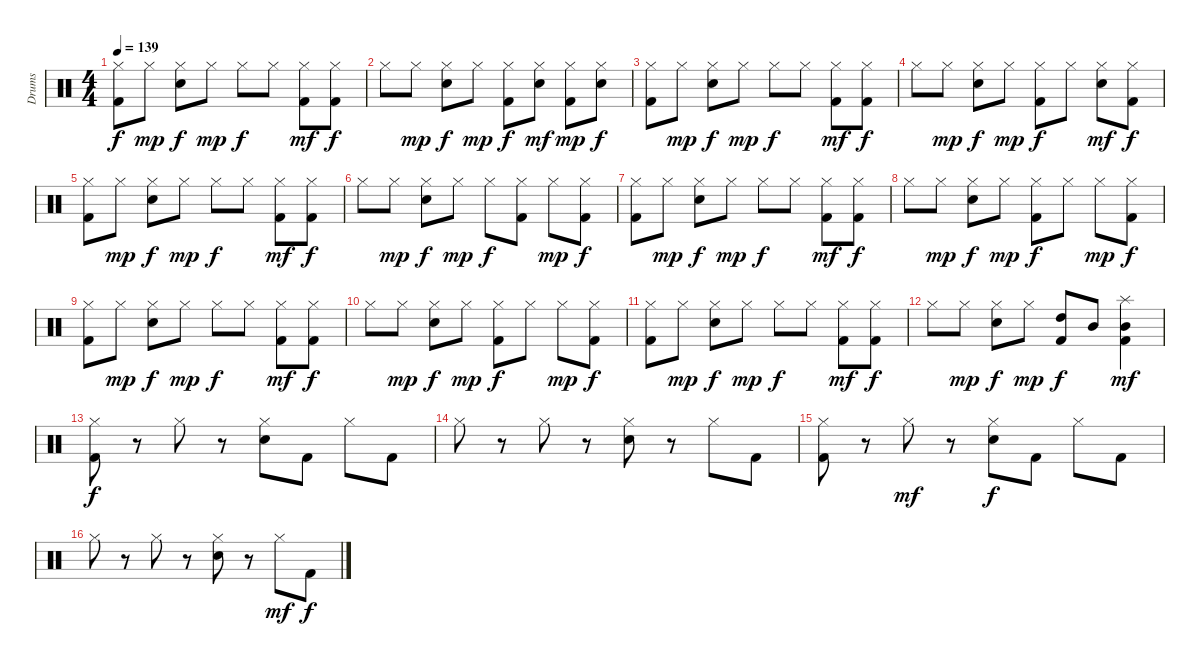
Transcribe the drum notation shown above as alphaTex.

\track ("Drums" "Drums") {instrument percussion}
\staff {score}
\articulation defaults
\ts (4 4)
\tempo 139
\clef neutral
\ks c
("Hi-Hat (closed)" "Kick (hit) 2").8{dy f} "Hi-Hat (closed)".8{dy mp} ("Hi-Hat (closed)" "Snare (hit) 2").8{dy f} "Hi-Hat (closed)".8{dy mp} "Hi-Hat (closed)".8{dy f} "Hi-Hat (closed)".8 ("Hi-Hat (closed)" "Kick (hit) 2").8{dy mf} ("Hi-Hat (closed)" "Kick (hit) 2").8{dy f} |
"Hi-Hat (closed)".8 "Hi-Hat (closed)".8{dy mp} ("Hi-Hat (closed)" "Snare (hit) 2").8{dy f} "Hi-Hat (closed)".8{dy mp} ("Hi-Hat (closed)" "Kick (hit) 2").8{dy f} ("Hi-Hat (closed)" "Snare (hit) 2").8{dy mf} ("Hi-Hat (closed)" "Kick (hit) 2").8{dy mp} ("Hi-Hat (closed)" "Snare (hit) 2").8{dy f} |
("Hi-Hat (closed)" "Kick (hit) 2").8 "Hi-Hat (closed)".8{dy mp} ("Hi-Hat (closed)" "Snare (hit) 2").8{dy f} "Hi-Hat (closed)".8{dy mp} "Hi-Hat (closed)".8{dy f} "Hi-Hat (closed)".8 ("Hi-Hat (closed)" "Kick (hit) 2").8{dy mf} ("Hi-Hat (closed)" "Kick (hit) 2").8{dy f} |
"Hi-Hat (closed)".8 "Hi-Hat (closed)".8{dy mp} ("Hi-Hat (closed)" "Snare (hit) 2").8{dy f} "Hi-Hat (closed)".8{dy mp} ("Hi-Hat (closed)" "Kick (hit) 2").8{dy f} "Hi-Hat (closed)".8 ("Hi-Hat (closed)" "Snare (hit) 2").8{dy mf} ("Hi-Hat (closed)" "Kick (hit) 2").8{dy f} |
("Hi-Hat (closed)" "Kick (hit) 2").8 "Hi-Hat (closed)".8{dy mp} ("Hi-Hat (closed)" "Snare (hit) 2").8{dy f} "Hi-Hat (closed)".8{dy mp} "Hi-Hat (closed)".8{dy f} "Hi-Hat (closed)".8 ("Hi-Hat (closed)" "Kick (hit) 2").8{dy mf} ("Hi-Hat (closed)" "Kick (hit) 2").8{dy f} |
"Hi-Hat (closed)".8 "Hi-Hat (closed)".8{dy mp} ("Hi-Hat (closed)" "Snare (hit) 2").8{dy f} "Hi-Hat (closed)".8{dy mp} "Hi-Hat (closed)".8{dy f} ("Hi-Hat (closed)" "Kick (hit) 2").8 "Hi-Hat (closed)".8{dy mp} ("Hi-Hat (closed)" "Kick (hit) 2").8{dy f} |
("Hi-Hat (closed)" "Kick (hit) 2").8 "Hi-Hat (closed)".8{dy mp} ("Hi-Hat (closed)" "Snare (hit) 2").8{dy f} "Hi-Hat (closed)".8{dy mp} "Hi-Hat (closed)".8{dy f} "Hi-Hat (closed)".8 ("Hi-Hat (closed)" "Kick (hit) 2").8{dy mf} ("Hi-Hat (closed)" "Kick (hit) 2").8{dy f} |
"Hi-Hat (closed)".8 "Hi-Hat (closed)".8{dy mp} ("Hi-Hat (closed)" "Snare (hit) 2").8{dy f} "Hi-Hat (closed)".8{dy mp} ("Hi-Hat (closed)" "Kick (hit) 2").8{dy f} "Hi-Hat (closed)".8 "Hi-Hat (closed)".8{dy mp} ("Hi-Hat (closed)" "Kick (hit) 2").8{dy f} |
("Hi-Hat (closed)" "Kick (hit) 2").8 "Hi-Hat (closed)".8{dy mp} ("Hi-Hat (closed)" "Snare (hit) 2").8{dy f} "Hi-Hat (closed)".8{dy mp} "Hi-Hat (closed)".8{dy f} "Hi-Hat (closed)".8 ("Hi-Hat (closed)" "Kick (hit) 2").8{dy mf} ("Hi-Hat (closed)" "Kick (hit) 2").8{dy f} |
"Hi-Hat (closed)".8 "Hi-Hat (closed)".8{dy mp} ("Hi-Hat (closed)" "Snare (hit) 2").8{dy f} "Hi-Hat (closed)".8{dy mp} ("Hi-Hat (closed)" "Kick (hit) 2").8{dy f} "Hi-Hat (closed)".8 "Hi-Hat (closed)".8{dy mp} ("Hi-Hat (closed)" "Kick (hit) 2").8{dy f} |
("Hi-Hat (closed)" "Kick (hit) 2").8 "Hi-Hat (closed)".8{dy mp} ("Hi-Hat (closed)" "Snare (hit) 2").8{dy f} "Hi-Hat (closed)".8{dy mp} "Hi-Hat (closed)".8{dy f} "Hi-Hat (closed)".8 ("Hi-Hat (closed)" "Kick (hit) 2").8{dy mf} ("Hi-Hat (closed)" "Kick (hit) 2").8{dy f} |
"Hi-Hat (closed)".8 "Hi-Hat (closed)".8{dy mp} ("Hi-Hat (closed)" "Snare (hit) 2").8{dy f} "Hi-Hat (closed)".8{dy mp} ("High Tom (hit)" "Kick (hit) 2").8{dy f} "Mid Tom (hit)".8 ("Splash (hit)" "Mid Tom (hit)" "Kick (hit) 2").4{dy mf} |
("Hi-Hat (closed)" "Kick (hit) 2").8{dy f} r.8 "Hi-Hat (closed)".8 r.8 ("Hi-Hat (closed)" "Snare (hit) 2").8 "Kick (hit) 2".8 "Hi-Hat (closed)".8 "Kick (hit) 2".8 |
"Hi-Hat (closed)".8 r.8 "Hi-Hat (closed)".8 r.8 ("Hi-Hat (closed)" "Snare (hit) 2").8 r.8 "Hi-Hat (closed)".8 "Kick (hit) 2".8 |
("Hi-Hat (closed)" "Kick (hit) 2").8 r.8 "Hi-Hat (closed)".8{dy mf} r.8 ("Hi-Hat (closed)" "Snare (hit) 2").8{dy f} "Kick (hit) 2".8 "Hi-Hat (closed)".8 "Kick (hit) 2".8 |
"Hi-Hat (closed)".8 r.8 "Hi-Hat (closed)".8 r.8 ("Hi-Hat (closed)" "Snare (hit) 2").8 r.8 "Hi-Hat (closed)".8{dy mf} "Kick (hit) 2".8{dy f}
